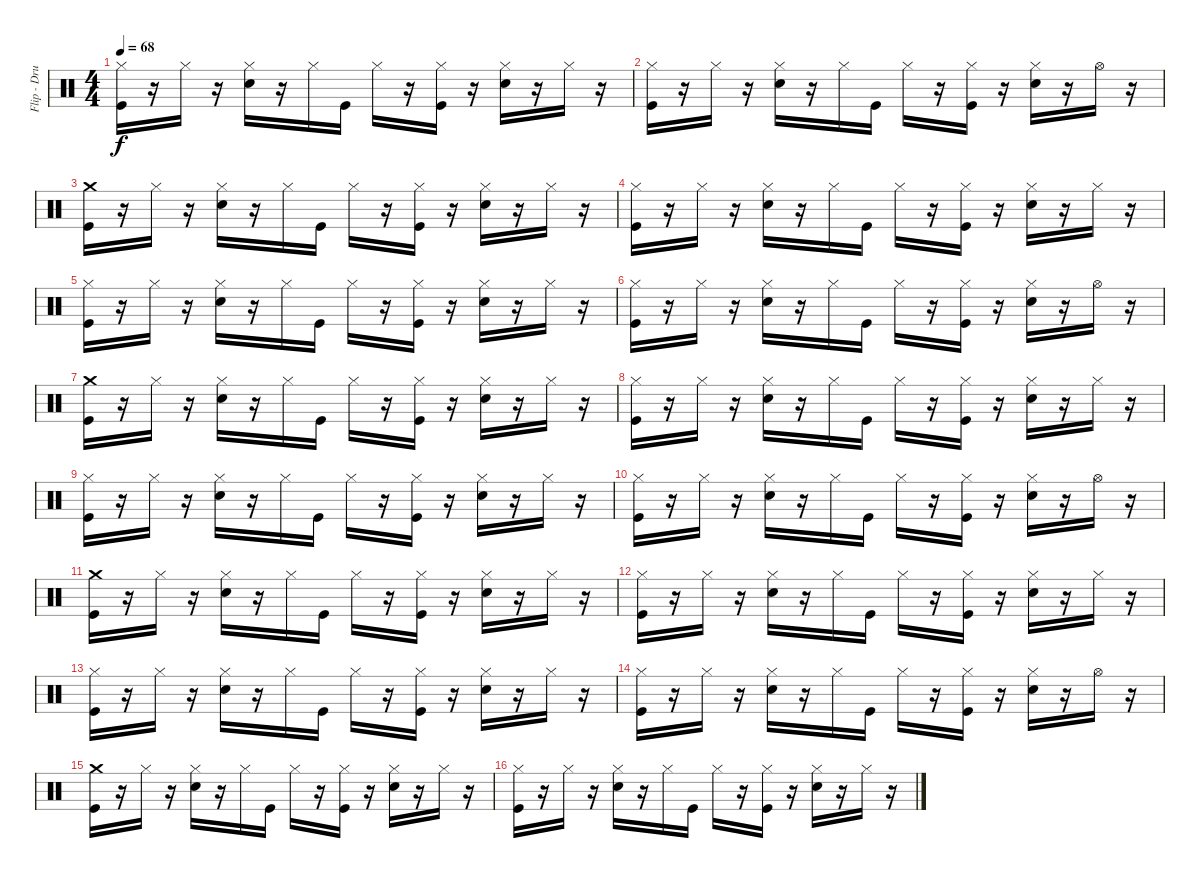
\track ("Flip - Drums" "Flip - Dru") {instrument percussion}
\staff {score}
\articulation defaults
\ts (4 4)
\tempo 68
\clef neutral
\ks c
("Hi-Hat (closed)" "Kick (hit)").16{dy f} r.16 "Hi-Hat (closed)".16 r.16 ("Hi-Hat (closed)" "Snare (hit) 2").16 r.16 "Hi-Hat (closed)".16 "Kick (hit)".16 "Hi-Hat (closed)".16 r.16 ("Hi-Hat (closed)" "Kick (hit)").16 r.16 ("Hi-Hat (closed)" "Snare (hit) 2").16 r.16 "Hi-Hat (closed)".16 r.16 |
("Hi-Hat (closed)" "Kick (hit)").16 r.16 "Hi-Hat (closed)".16 r.16 ("Hi-Hat (closed)" "Snare (hit) 2").16 r.16 "Hi-Hat (closed)".16 "Kick (hit)".16 "Hi-Hat (closed)".16 r.16 ("Hi-Hat (closed)" "Kick (hit)").16 r.16 ("Hi-Hat (closed)" "Snare (hit) 2").16 r.16 "Hi-Hat (open)".16 r.16 |
("Crash medium (hit)" "Kick (hit)").16 r.16 "Hi-Hat (closed)".16 r.16 ("Hi-Hat (closed)" "Snare (hit) 2").16 r.16 "Hi-Hat (closed)".16 "Kick (hit)".16 "Hi-Hat (closed)".16 r.16 ("Hi-Hat (closed)" "Kick (hit)").16 r.16 ("Hi-Hat (closed)" "Snare (hit) 2").16 r.16 "Hi-Hat (closed)".16 r.16 |
("Hi-Hat (closed)" "Kick (hit)").16 r.16 "Hi-Hat (closed)".16 r.16 ("Hi-Hat (closed)" "Snare (hit) 2").16 r.16 "Hi-Hat (closed)".16 "Kick (hit)".16 "Hi-Hat (closed)".16 r.16 ("Hi-Hat (closed)" "Kick (hit)").16 r.16 ("Hi-Hat (closed)" "Snare (hit) 2").16 r.16 "Hi-Hat (closed)".16 r.16 |
("Hi-Hat (closed)" "Kick (hit)").16 r.16 "Hi-Hat (closed)".16 r.16 ("Hi-Hat (closed)" "Snare (hit) 2").16 r.16 "Hi-Hat (closed)".16 "Kick (hit)".16 "Hi-Hat (closed)".16 r.16 ("Hi-Hat (closed)" "Kick (hit)").16 r.16 ("Hi-Hat (closed)" "Snare (hit) 2").16 r.16 "Hi-Hat (closed)".16 r.16 |
("Hi-Hat (closed)" "Kick (hit)").16 r.16 "Hi-Hat (closed)".16 r.16 ("Hi-Hat (closed)" "Snare (hit) 2").16 r.16 "Hi-Hat (closed)".16 "Kick (hit)".16 "Hi-Hat (closed)".16 r.16 ("Hi-Hat (closed)" "Kick (hit)").16 r.16 ("Hi-Hat (closed)" "Snare (hit) 2").16 r.16 "Hi-Hat (open)".16 r.16 |
("Crash medium (hit)" "Kick (hit)").16 r.16 "Hi-Hat (closed)".16 r.16 ("Hi-Hat (closed)" "Snare (hit) 2").16 r.16 "Hi-Hat (closed)".16 "Kick (hit)".16 "Hi-Hat (closed)".16 r.16 ("Hi-Hat (closed)" "Kick (hit)").16 r.16 ("Hi-Hat (closed)" "Snare (hit) 2").16 r.16 "Hi-Hat (closed)".16 r.16 |
("Hi-Hat (closed)" "Kick (hit)").16 r.16 "Hi-Hat (closed)".16 r.16 ("Hi-Hat (closed)" "Snare (hit) 2").16 r.16 "Hi-Hat (closed)".16 "Kick (hit)".16 "Hi-Hat (closed)".16 r.16 ("Hi-Hat (closed)" "Kick (hit)").16 r.16 ("Hi-Hat (closed)" "Snare (hit) 2").16 r.16 "Hi-Hat (closed)".16 r.16 |
("Hi-Hat (closed)" "Kick (hit)").16 r.16 "Hi-Hat (closed)".16 r.16 ("Hi-Hat (closed)" "Snare (hit) 2").16 r.16 "Hi-Hat (closed)".16 "Kick (hit)".16 "Hi-Hat (closed)".16 r.16 ("Hi-Hat (closed)" "Kick (hit)").16 r.16 ("Hi-Hat (closed)" "Snare (hit) 2").16 r.16 "Hi-Hat (closed)".16 r.16 |
("Hi-Hat (closed)" "Kick (hit)").16 r.16 "Hi-Hat (closed)".16 r.16 ("Hi-Hat (closed)" "Snare (hit) 2").16 r.16 "Hi-Hat (closed)".16 "Kick (hit)".16 "Hi-Hat (closed)".16 r.16 ("Hi-Hat (closed)" "Kick (hit)").16 r.16 ("Hi-Hat (closed)" "Snare (hit) 2").16 r.16 "Hi-Hat (open)".16 r.16 |
("Crash medium (hit)" "Kick (hit)").16 r.16 "Hi-Hat (closed)".16 r.16 ("Hi-Hat (closed)" "Snare (hit) 2").16 r.16 "Hi-Hat (closed)".16 "Kick (hit)".16 "Hi-Hat (closed)".16 r.16 ("Hi-Hat (closed)" "Kick (hit)").16 r.16 ("Hi-Hat (closed)" "Snare (hit) 2").16 r.16 "Hi-Hat (closed)".16 r.16 |
("Hi-Hat (closed)" "Kick (hit)").16 r.16 "Hi-Hat (closed)".16 r.16 ("Hi-Hat (closed)" "Snare (hit) 2").16 r.16 "Hi-Hat (closed)".16 "Kick (hit)".16 "Hi-Hat (closed)".16 r.16 ("Hi-Hat (closed)" "Kick (hit)").16 r.16 ("Hi-Hat (closed)" "Snare (hit) 2").16 r.16 "Hi-Hat (closed)".16 r.16 |
("Hi-Hat (closed)" "Kick (hit)").16 r.16 "Hi-Hat (closed)".16 r.16 ("Hi-Hat (closed)" "Snare (hit) 2").16 r.16 "Hi-Hat (closed)".16 "Kick (hit)".16 "Hi-Hat (closed)".16 r.16 ("Hi-Hat (closed)" "Kick (hit)").16 r.16 ("Hi-Hat (closed)" "Snare (hit) 2").16 r.16 "Hi-Hat (closed)".16 r.16 |
("Hi-Hat (closed)" "Kick (hit)").16 r.16 "Hi-Hat (closed)".16 r.16 ("Hi-Hat (closed)" "Snare (hit) 2").16 r.16 "Hi-Hat (closed)".16 "Kick (hit)".16 "Hi-Hat (closed)".16 r.16 ("Hi-Hat (closed)" "Kick (hit)").16 r.16 ("Hi-Hat (closed)" "Snare (hit) 2").16 r.16 "Hi-Hat (open)".16 r.16 |
("Crash medium (hit)" "Kick (hit)").16 r.16 "Hi-Hat (closed)".16 r.16 ("Hi-Hat (closed)" "Snare (hit) 2").16 r.16 "Hi-Hat (closed)".16 "Kick (hit)".16 "Hi-Hat (closed)".16 r.16 ("Hi-Hat (closed)" "Kick (hit)").16 r.16 ("Hi-Hat (closed)" "Snare (hit) 2").16 r.16 "Hi-Hat (closed)".16 r.16 |
("Hi-Hat (closed)" "Kick (hit)").16 r.16 "Hi-Hat (closed)".16 r.16 ("Hi-Hat (closed)" "Snare (hit) 2").16 r.16 "Hi-Hat (closed)".16 "Kick (hit)".16 "Hi-Hat (closed)".16 r.16 ("Hi-Hat (closed)" "Kick (hit)").16 r.16 ("Hi-Hat (closed)" "Snare (hit) 2").16 r.16 "Hi-Hat (closed)".16 r.16
